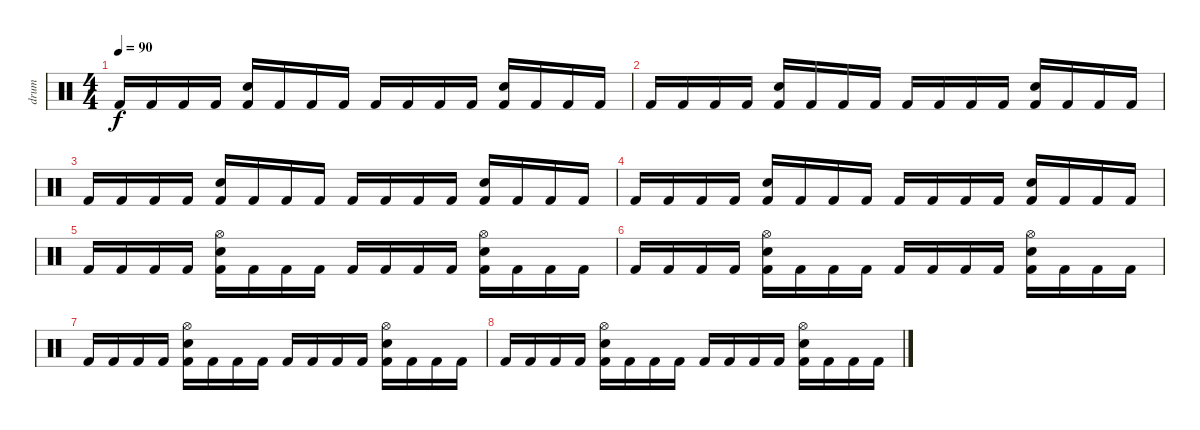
\track ("drum" "drum") {instrument percussion}
\staff {score}
\articulation defaults
\ts (4 4)
\tempo 90
\clef neutral
\ks c "Kick (hit) 2".16{dy f} "Kick (hit) 2".16 "Kick (hit) 2".16 "Kick (hit) 2".16
("Snare (hit) 2" "Kick (hit) 2").16 "Kick (hit) 2".16 "Kick (hit) 2".16 "Kick (hit) 2".16 "Kick (hit) 2".16 "Kick (hit) 2".16 "Kick (hit) 2".16 "Kick (hit) 2".16 ("Snare (hit) 2" "Kick (hit) 2").16 "Kick (hit) 2".16 "Kick (hit) 2".16 "Kick (hit) 2".16 |
"Kick (hit) 2".16 "Kick (hit) 2".16 "Kick (hit) 2".16 "Kick (hit) 2".16 ("Snare (hit) 2" "Kick (hit) 2").16 "Kick (hit) 2".16 "Kick (hit) 2".16 "Kick (hit) 2".16 "Kick (hit) 2".16 "Kick (hit) 2".16 "Kick (hit) 2".16 "Kick (hit) 2".16 ("Snare (hit) 2" "Kick (hit) 2").16 "Kick (hit) 2".16 "Kick (hit) 2".16 "Kick (hit) 2".16 |
"Kick (hit) 2".16 "Kick (hit) 2".16 "Kick (hit) 2".16 "Kick (hit) 2".16 ("Snare (hit) 2" "Kick (hit) 2").16 "Kick (hit) 2".16 "Kick (hit) 2".16 "Kick (hit) 2".16 "Kick (hit) 2".16 "Kick (hit) 2".16 "Kick (hit) 2".16 "Kick (hit) 2".16 ("Snare (hit) 2" "Kick (hit) 2").16 "Kick (hit) 2".16 "Kick (hit) 2".16 "Kick (hit) 2".16 |
"Kick (hit) 2".16 "Kick (hit) 2".16 "Kick (hit) 2".16 "Kick (hit) 2".16 ("Snare (hit) 2" "Kick (hit) 2").16 "Kick (hit) 2".16 "Kick (hit) 2".16 "Kick (hit) 2".16 "Kick (hit) 2".16 "Kick (hit) 2".16 "Kick (hit) 2".16 "Kick (hit) 2".16 ("Snare (hit) 2" "Kick (hit) 2").16 "Kick (hit) 2".16 "Kick (hit) 2".16 "Kick (hit) 2".16 |
"Kick (hit) 2".16 "Kick (hit) 2".16 "Kick (hit) 2".16 "Kick (hit) 2".16 ("Hi-Hat (open)" "Snare (hit) 2" "Kick (hit) 2").16 "Kick (hit) 2".16 "Kick (hit) 2".16 "Kick (hit) 2".16 "Kick (hit) 2".16 "Kick (hit) 2".16 "Kick (hit) 2".16 "Kick (hit) 2".16 ("Hi-Hat (open)" "Snare (hit) 2" "Kick (hit) 2").16 "Kick (hit) 2".16 "Kick (hit) 2".16 "Kick (hit) 2".16 |
"Kick (hit) 2".16 "Kick (hit) 2".16 "Kick (hit) 2".16 "Kick (hit) 2".16 ("Hi-Hat (open)" "Snare (hit) 2" "Kick (hit) 2").16 "Kick (hit) 2".16 "Kick (hit) 2".16 "Kick (hit) 2".16 "Kick (hit) 2".16 "Kick (hit) 2".16 "Kick (hit) 2".16 "Kick (hit) 2".16 ("Hi-Hat (open)" "Snare (hit) 2" "Kick (hit) 2").16 "Kick (hit) 2".16 "Kick (hit) 2".16 "Kick (hit) 2".16 |
"Kick (hit) 2".16 "Kick (hit) 2".16 "Kick (hit) 2".16 "Kick (hit) 2".16 ("Hi-Hat (open)" "Snare (hit) 2" "Kick (hit) 2").16 "Kick (hit) 2".16 "Kick (hit) 2".16 "Kick (hit) 2".16 "Kick (hit) 2".16 "Kick (hit) 2".16 "Kick (hit) 2".16 "Kick (hit) 2".16 ("Hi-Hat (open)" "Snare (hit) 2" "Kick (hit) 2").16 "Kick (hit) 2".16 "Kick (hit) 2".16 "Kick (hit) 2".16 |
"Kick (hit) 2".16 "Kick (hit) 2".16 "Kick (hit) 2".16 "Kick (hit) 2".16 ("Hi-Hat (open)" "Snare (hit) 2" "Kick (hit) 2").16 "Kick (hit) 2".16 "Kick (hit) 2".16 "Kick (hit) 2".16 "Kick (hit) 2".16 "Kick (hit) 2".16 "Kick (hit) 2".16 "Kick (hit) 2".16 ("Hi-Hat (open)" "Snare (hit) 2" "Kick (hit) 2").16 "Kick (hit) 2".16 "Kick (hit) 2".16 "Kick (hit) 2".16
